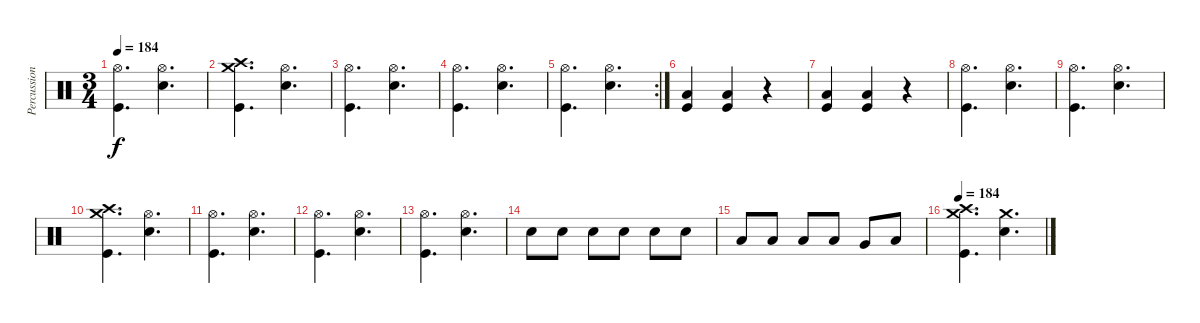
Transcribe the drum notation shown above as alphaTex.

\track ("Percussion" "Percussion") {instrument percussion}
\staff {score}
\articulation defaults
\ts (3 4)
\tempo 184
\clef neutral
\ks c
("Hi-Hat (open)" "Kick (hit)").4{d dy f} ("Hi-Hat (open)" "Snare (hit) 2").4{d} |
("Crash medium (hit)" "Crash high (hit)" "Kick (hit)").4{d} ("Hi-Hat (open)" "Snare (hit) 2").4{d} |
("Hi-Hat (open)" "Kick (hit)").4{d} ("Hi-Hat (open)" "Snare (hit) 2").4{d} |
("Hi-Hat (open)" "Kick (hit)").4{d} ("Hi-Hat (open)" "Snare (hit) 2").4{d} |
\rc 2
("Hi-Hat (open)" "Kick (hit)").4{d} ("Hi-Hat (open)" "Snare (hit) 2").4{d} |
("Low Tom (hit)" "Kick (hit)").4 ("Low Tom (hit)" "Kick (hit)").4 r.4 |
("Low Tom (hit)" "Kick (hit)").4 ("Low Tom (hit)" "Kick (hit)").4 r.4 |
("Hi-Hat (open)" "Kick (hit)").4{d} ("Hi-Hat (open)" "Snare (hit) 2").4{d} |
("Hi-Hat (open)" "Kick (hit)").4{d} ("Hi-Hat (open)" "Snare (hit) 2").4{d} |
("Crash medium (hit)" "Crash high (hit)" "Kick (hit)").4{d} ("Hi-Hat (open)" "Snare (hit) 2").4{d} |
("Hi-Hat (open)" "Kick (hit)").4{d} ("Hi-Hat (open)" "Snare (hit) 2").4{d} |
("Hi-Hat (open)" "Kick (hit)").4{d} ("Hi-Hat (open)" "Snare (hit) 2").4{d} |
("Hi-Hat (open)" "Kick (hit)").4{d} ("Hi-Hat (open)" "Snare (hit) 2").4{d} |
"Snare (hit) 2".8 "Snare (hit) 2".8 "Snare (hit) 2".8 "Snare (hit) 2".8 "Snare (hit) 2".8 "Snare (hit) 2".8 |
"Low Tom (hit)".8 "Low Tom (hit)".8 "Low Tom (hit)".8 "Low Tom (hit)".8 "Very Low Tom (hit)".8 "Low Floor Tom (hit)".8 |
\tempo 184
("Crash medium (hit)" "Crash high (hit)" "Kick (hit)").4{d} ("Crash medium (hit)" "Snare (hit) 2").4{d}
